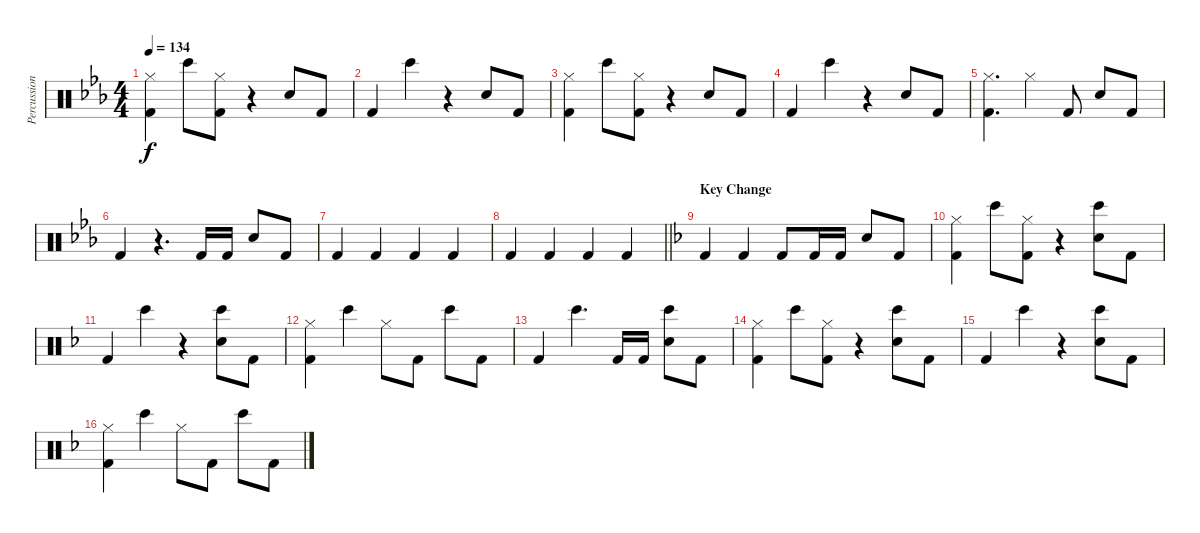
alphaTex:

\track ("Percussion" "Percussion") {instrument percussion}
\staff {score}
\articulation defaults
\ts (4 4)
\tempo 134
\clef neutral
\ks eb
("Hi-Hat (closed)" "Kick (hit) 2").4{dy f} "Bongo High (hit)".8 ("Hi-Hat (closed)" "Kick (hit) 2").8 r.4 "Hand Clap (hit)".8 "Kick (hit) 2".8 |
"Kick (hit) 2".4 "Bongo High (hit)".4 r.4 "Hand Clap (hit)".8 "Kick (hit) 2".8 |
("Hi-Hat (closed)" "Kick (hit) 2").4 "Bongo High (hit)".8 ("Hi-Hat (closed)" "Kick (hit) 2").8 r.4 "Hand Clap (hit)".8 "Kick (hit) 2".8 |
"Kick (hit) 2".4 "Bongo High (hit)".4 r.4 "Hand Clap (hit)".8 "Kick (hit) 2".8 |
("Hi-Hat (closed)" "Kick (hit) 2").4{d} "Hi-Hat (closed)".4 "Kick (hit) 2".8 "Hand Clap (hit)".8 "Kick (hit) 2".8 |
"Kick (hit) 2".4 r.4{d} "Kick (hit) 2".16 "Kick (hit) 2".16 "Hand Clap (hit)".8 "Kick (hit) 2".8 |
"Kick (hit) 2".4 "Kick (hit) 2".4 "Kick (hit) 2".4 "Kick (hit) 2".4 |
\barLineRight lightlight "Kick (hit) 2".4 "Kick (hit) 2".4 "Kick (hit) 2".4 "Kick (hit) 2".4
|
\section ("" "Key Change")
\ks f "Kick (hit) 2".4 "Kick (hit) 2".4 "Kick (hit) 2".8 "Kick (hit) 2".16 "Kick (hit) 2".16 "Hand Clap (hit)".8 "Kick (hit) 2".8
|
("Hi-Hat (closed)" "Kick (hit) 2").4 "Bongo High (hit)".8 ("Hi-Hat (closed)" "Kick (hit) 2").8 r.4 ("Hand Clap (hit)" "Bongo High (hit)").8 "Kick (hit) 2".8 |
"Kick (hit) 2".4 "Bongo High (hit)".4 r.4 ("Hand Clap (hit)" "Bongo High (hit)").8 "Kick (hit) 2".8 |
("Hi-Hat (closed)" "Kick (hit) 2").4 "Bongo High (hit)".4 "Hi-Hat (closed)".8 "Kick (hit) 2".8 "Bongo High (hit)".8 "Kick (hit) 2".8 |
"Kick (hit) 2".4 "Bongo High (hit)".4{d} "Kick (hit) 2".16 "Kick (hit) 2".16 ("Hand Clap (hit)" "Bongo High (hit)").8 "Kick (hit) 2".8 |
("Hi-Hat (closed)" "Kick (hit) 2").4 "Bongo High (hit)".8 ("Hi-Hat (closed)" "Kick (hit) 2").8 r.4 ("Hand Clap (hit)" "Bongo High (hit)").8 "Kick (hit) 2".8 |
"Kick (hit) 2".4 "Bongo High (hit)".4 r.4 ("Hand Clap (hit)" "Bongo High (hit)").8 "Kick (hit) 2".8 |
("Hi-Hat (closed)" "Kick (hit) 2").4 "Bongo High (hit)".4 "Hi-Hat (closed)".8 "Kick (hit) 2".8 "Bongo High (hit)".8 "Kick (hit) 2".8
